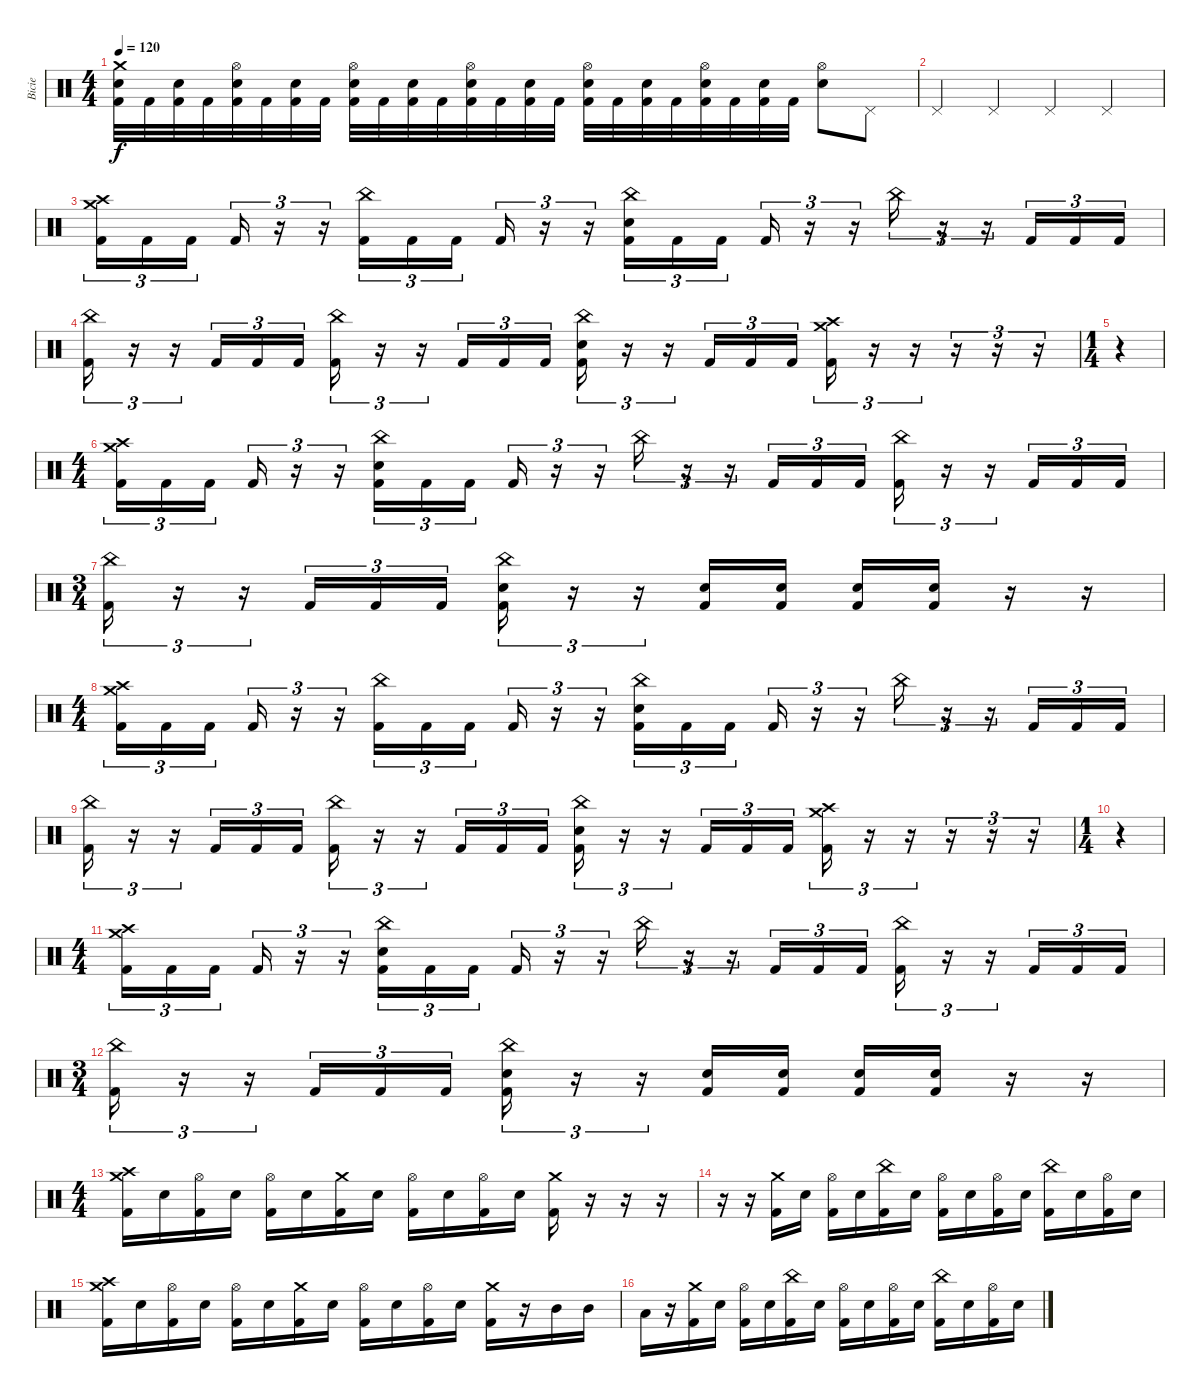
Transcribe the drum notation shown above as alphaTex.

\track ("Bicie" "Bicie") {instrument percussion}
\staff {score}
\articulation defaults
\ts (4 4)
\tempo 120
\clef neutral
\ks c
("Crash medium (hit)" "Snare (hit) 2" "Kick (hit) 2").32{dy f} "Kick (hit) 2".32 ("Snare (hit) 2" "Kick (hit) 2").32 "Kick (hit) 2".32 ("Hi-Hat (open)" "Snare (hit) 2" "Kick (hit) 2").32 "Kick (hit) 2".32 ("Snare (hit) 2" "Kick (hit) 2").32 "Kick (hit) 2".32 ("Hi-Hat (open)" "Snare (hit) 2" "Kick (hit) 2").32 "Kick (hit) 2".32 ("Snare (hit) 2" "Kick (hit) 2").32 "Kick (hit) 2".32 ("Hi-Hat (open)" "Snare (hit) 2" "Kick (hit) 2").32 "Kick (hit) 2".32 ("Snare (hit) 2" "Kick (hit) 2").32 "Kick (hit) 2".32 ("Hi-Hat (open)" "Snare (hit) 2" "Kick (hit) 2").32 "Kick (hit) 2".32 ("Snare (hit) 2" "Kick (hit) 2").32 "Kick (hit) 2".32 ("Hi-Hat (open)" "Snare (hit) 2" "Kick (hit) 2").32 "Kick (hit) 2".32 ("Snare (hit) 2" "Kick (hit) 2").32 "Kick (hit) 2".32 ("Hi-Hat (open)" "Snare (hit) 2").8 "Pedal Hi-Hat (hit)".8 |
"Pedal Hi-Hat (hit)".4 "Pedal Hi-Hat (hit)".4 "Pedal Hi-Hat (hit)".4 "Pedal Hi-Hat (hit)".4 |
("Crash high (hit)" "Crash medium (hit)" "Kick (hit) 2").16{tu (3 2)} "Kick (hit) 2".16{tu (3 2)} "Kick (hit) 2".16{tu (3 2) beam splitsecondary} "Kick (hit) 2".16{tu (3 2)} r.16{tu (3 2)} r.16{tu (3 2)} ("China (hit)" "Kick (hit) 2").16{tu (3 2)} "Kick (hit) 2".16{tu (3 2)} "Kick (hit) 2".16{tu (3 2) beam splitsecondary} "Kick (hit) 2".16{tu (3 2)} r.16{tu (3 2)} r.16{tu (3 2)} ("China (hit)" "Snare (hit) 2" "Kick (hit) 2").16{tu (3 2)} "Kick (hit) 2".16{tu (3 2)} "Kick (hit) 2".16{tu (3 2) beam splitsecondary} "Kick (hit) 2".16{tu (3 2)} r.16{tu (3 2)} r.16{tu (3 2)} "China (hit)".16{tu (3 2)} r.16{tu (3 2)} r.16{tu (3 2)} "Kick (hit) 2".16{tu (3 2)} "Kick (hit) 2".16{tu (3 2)} "Kick (hit) 2".16{tu (3 2)} |
("China (hit)" "Kick (hit) 2").16{tu (3 2)} r.16{tu (3 2)} r.16{tu (3 2)} "Kick (hit) 2".16{tu (3 2)} "Kick (hit) 2".16{tu (3 2)} "Kick (hit) 2".16{tu (3 2)} ("China (hit)" "Kick (hit) 2").16{tu (3 2)} r.16{tu (3 2)} r.16{tu (3 2)} "Kick (hit) 2".16{tu (3 2)} "Kick (hit) 2".16{tu (3 2)} "Kick (hit) 2".16{tu (3 2)} ("China (hit)" "Snare (hit) 2" "Kick (hit) 2").16{tu (3 2)} r.16{tu (3 2)} r.16{tu (3 2)} "Kick (hit) 2".16{tu (3 2)} "Kick (hit) 2".16{tu (3 2)} "Kick (hit) 2".16{tu (3 2)} ("Crash medium (hit)" "Crash high (hit)" "Kick (hit) 2").16{tu (3 2)} r.16{tu (3 2)} r.16{tu (3 2)} r.16{tu (3 2)} r.16{tu (3 2)} r.16{tu (3 2)} |
\ts (1 4)
r.4 |
\ts (4 4)
("Crash high (hit)" "Crash medium (hit)" "Kick (hit) 2").16{tu (3 2)} "Kick (hit) 2".16{tu (3 2)} "Kick (hit) 2".16{tu (3 2) beam splitsecondary} "Kick (hit) 2".16{tu (3 2)} r.16{tu (3 2)} r.16{tu (3 2)} ("China (hit)" "Snare (hit) 2" "Kick (hit) 2").16{tu (3 2)} "Kick (hit) 2".16{tu (3 2)} "Kick (hit) 2".16{tu (3 2) beam splitsecondary} "Kick (hit) 2".16{tu (3 2)} r.16{tu (3 2)} r.16{tu (3 2)} "China (hit)".16{tu (3 2)} r.16{tu (3 2)} r.16{tu (3 2)} "Kick (hit) 2".16{tu (3 2)} "Kick (hit) 2".16{tu (3 2)} "Kick (hit) 2".16{tu (3 2)} ("China (hit)" "Kick (hit) 2").16{tu (3 2)} r.16{tu (3 2)} r.16{tu (3 2)} "Kick (hit) 2".16{tu (3 2)} "Kick (hit) 2".16{tu (3 2)} "Kick (hit) 2".16{tu (3 2)} |
\ts (3 4)
("China (hit)" "Kick (hit) 2").16{tu (3 2)} r.16{tu (3 2)} r.16{tu (3 2)} "Kick (hit) 2".16{tu (3 2)} "Kick (hit) 2".16{tu (3 2)} "Kick (hit) 2".16{tu (3 2)} ("China (hit)" "Snare (hit) 2" "Kick (hit) 2").16{tu (3 2)} r.16{tu (3 2)} r.16{tu (3 2)} ("Snare (hit) 2" "Kick (hit) 2").16 ("Snare (hit) 2" "Kick (hit) 2").16 ("Snare (hit) 2" "Kick (hit) 2").16 ("Snare (hit) 2" "Kick (hit) 2").16 r.16 r.16 |
\ts (4 4)
("Crash high (hit)" "Crash medium (hit)" "Kick (hit) 2").16{tu (3 2)} "Kick (hit) 2".16{tu (3 2)} "Kick (hit) 2".16{tu (3 2) beam splitsecondary} "Kick (hit) 2".16{tu (3 2)} r.16{tu (3 2)} r.16{tu (3 2)} ("China (hit)" "Kick (hit) 2").16{tu (3 2)} "Kick (hit) 2".16{tu (3 2)} "Kick (hit) 2".16{tu (3 2) beam splitsecondary} "Kick (hit) 2".16{tu (3 2)} r.16{tu (3 2)} r.16{tu (3 2)} ("China (hit)" "Snare (hit) 2" "Kick (hit) 2").16{tu (3 2)} "Kick (hit) 2".16{tu (3 2)} "Kick (hit) 2".16{tu (3 2) beam splitsecondary} "Kick (hit) 2".16{tu (3 2)} r.16{tu (3 2)} r.16{tu (3 2)} "China (hit)".16{tu (3 2)} r.16{tu (3 2)} r.16{tu (3 2)} "Kick (hit) 2".16{tu (3 2)} "Kick (hit) 2".16{tu (3 2)} "Kick (hit) 2".16{tu (3 2)} |
("China (hit)" "Kick (hit) 2").16{tu (3 2)} r.16{tu (3 2)} r.16{tu (3 2)} "Kick (hit) 2".16{tu (3 2)} "Kick (hit) 2".16{tu (3 2)} "Kick (hit) 2".16{tu (3 2)} ("China (hit)" "Kick (hit) 2").16{tu (3 2)} r.16{tu (3 2)} r.16{tu (3 2)} "Kick (hit) 2".16{tu (3 2)} "Kick (hit) 2".16{tu (3 2)} "Kick (hit) 2".16{tu (3 2)} ("China (hit)" "Snare (hit) 2" "Kick (hit) 2").16{tu (3 2)} r.16{tu (3 2)} r.16{tu (3 2)} "Kick (hit) 2".16{tu (3 2)} "Kick (hit) 2".16{tu (3 2)} "Kick (hit) 2".16{tu (3 2)} ("Crash medium (hit)" "Crash high (hit)" "Kick (hit) 2").16{tu (3 2)} r.16{tu (3 2)} r.16{tu (3 2)} r.16{tu (3 2)} r.16{tu (3 2)} r.16{tu (3 2)} |
\ts (1 4)
r.4 |
\ts (4 4)
("Crash high (hit)" "Crash medium (hit)" "Kick (hit) 2").16{tu (3 2)} "Kick (hit) 2".16{tu (3 2)} "Kick (hit) 2".16{tu (3 2) beam splitsecondary} "Kick (hit) 2".16{tu (3 2)} r.16{tu (3 2)} r.16{tu (3 2)} ("China (hit)" "Snare (hit) 2" "Kick (hit) 2").16{tu (3 2)} "Kick (hit) 2".16{tu (3 2)} "Kick (hit) 2".16{tu (3 2) beam splitsecondary} "Kick (hit) 2".16{tu (3 2)} r.16{tu (3 2)} r.16{tu (3 2)} "China (hit)".16{tu (3 2)} r.16{tu (3 2)} r.16{tu (3 2)} "Kick (hit) 2".16{tu (3 2)} "Kick (hit) 2".16{tu (3 2)} "Kick (hit) 2".16{tu (3 2)} ("China (hit)" "Kick (hit) 2").16{tu (3 2)} r.16{tu (3 2)} r.16{tu (3 2)} "Kick (hit) 2".16{tu (3 2)} "Kick (hit) 2".16{tu (3 2)} "Kick (hit) 2".16{tu (3 2)} |
\ts (3 4)
("China (hit)" "Kick (hit) 2").16{tu (3 2)} r.16{tu (3 2)} r.16{tu (3 2)} "Kick (hit) 2".16{tu (3 2)} "Kick (hit) 2".16{tu (3 2)} "Kick (hit) 2".16{tu (3 2)} ("China (hit)" "Snare (hit) 2" "Kick (hit) 2").16{tu (3 2)} r.16{tu (3 2)} r.16{tu (3 2)} ("Snare (hit) 2" "Kick (hit) 2").16 ("Snare (hit) 2" "Kick (hit) 2").16 ("Snare (hit) 2" "Kick (hit) 2").16 ("Snare (hit) 2" "Kick (hit) 2").16 r.16 r.16 |
\ts (4 4)
("Crash high (hit)" "Crash medium (hit)" "Kick (hit) 2").16 "Snare (hit) 2".16 ("Hi-Hat (open)" "Kick (hit) 2").16 "Snare (hit) 2".16 ("Hi-Hat (open)" "Kick (hit) 2").16 "Snare (hit) 2".16 ("Crash medium (hit)" "Kick (hit) 2").16 "Snare (hit) 2".16 ("Hi-Hat (open)" "Kick (hit) 2").16 "Snare (hit) 2".16 ("Hi-Hat (open)" "Kick (hit) 2").16 "Snare (hit) 2".16 ("Crash medium (hit)" "Kick (hit) 2").16 r.16 r.16 r.16 |
r.16 r.16 ("Crash medium (hit)" "Kick (hit) 2").16 "Snare (hit) 2".16 ("Hi-Hat (open)" "Kick (hit) 2").16 "Snare (hit) 2".16 ("China (hit)" "Kick (hit) 2").16 "Snare (hit) 2".16 ("Hi-Hat (open)" "Kick (hit) 2").16 "Snare (hit) 2".16 ("Hi-Hat (open)" "Kick (hit) 2").16 "Snare (hit) 2".16 ("China (hit)" "Kick (hit) 2").16 "Snare (hit) 2".16 ("Hi-Hat (open)" "Kick (hit) 2").16 "Snare (hit) 2".16 |
("Crash high (hit)" "Crash medium (hit)" "Kick (hit) 2").16 "Snare (hit) 2".16 ("Hi-Hat (open)" "Kick (hit) 2").16 "Snare (hit) 2".16 ("Hi-Hat (open)" "Kick (hit) 2").16 "Snare (hit) 2".16 ("Crash medium (hit)" "Kick (hit) 2").16 "Snare (hit) 2".16 ("Hi-Hat (open)" "Kick (hit) 2").16 "Snare (hit) 2".16 ("Hi-Hat (open)" "Kick (hit) 2").16 "Snare (hit) 2".16 ("Crash medium (hit)" "Kick (hit) 2").16 r.16 "Mid Tom (hit)".16 "Mid Tom (hit)".16 |
"Low Tom (hit)".16 r.16 ("Crash medium (hit)" "Kick (hit) 2").16 "Snare (hit) 2".16 ("Hi-Hat (open)" "Kick (hit) 2").16 "Snare (hit) 2".16 ("China (hit)" "Kick (hit) 2").16 "Snare (hit) 2".16 ("Hi-Hat (open)" "Kick (hit) 2").16 "Snare (hit) 2".16 ("Hi-Hat (open)" "Kick (hit) 2").16 "Snare (hit) 2".16 ("China (hit)" "Kick (hit) 2").16 "Snare (hit) 2".16 ("Hi-Hat (open)" "Kick (hit) 2").16 "Snare (hit) 2".16
